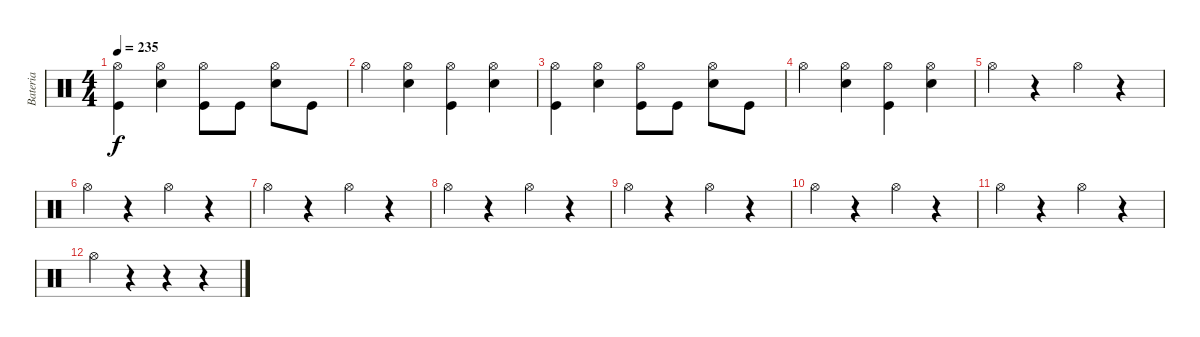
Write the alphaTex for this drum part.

\track ("Bateria" "Bateria") {instrument percussion}
\staff {score}
\articulation defaults
\ts (4 4)
\tempo 235
\clef neutral
\ks c
("Hi-Hat (open)" "Kick (hit)").4{dy f} ("Hi-Hat (open)" "Electric Snare (hit)").4 ("Hi-Hat (open)" "Kick (hit)").8 "Kick (hit)".8 ("Hi-Hat (open)" "Electric Snare (hit)").8 "Kick (hit)".8 |
"Hi-Hat (open)".4 ("Hi-Hat (open)" "Electric Snare (hit)").4 ("Hi-Hat (open)" "Kick (hit)").4 ("Hi-Hat (open)" "Electric Snare (hit)").4 |
("Hi-Hat (open)" "Kick (hit)").4 ("Hi-Hat (open)" "Electric Snare (hit)").4 ("Hi-Hat (open)" "Kick (hit)").8 "Kick (hit)".8 ("Hi-Hat (open)" "Electric Snare (hit)").8 "Kick (hit)".8 |
"Hi-Hat (open)".4 ("Hi-Hat (open)" "Electric Snare (hit)").4 ("Hi-Hat (open)" "Kick (hit)").4 ("Hi-Hat (open)" "Electric Snare (hit)").4 |
"Hi-Hat (open)".4 r.4 "Hi-Hat (open)".4 r.4 |
"Hi-Hat (open)".4 r.4 "Hi-Hat (open)".4 r.4 |
"Hi-Hat (open)".4 r.4 "Hi-Hat (open)".4 r.4 |
"Hi-Hat (open)".4 r.4 "Hi-Hat (open)".4 r.4 |
"Hi-Hat (open)".4 r.4 "Hi-Hat (open)".4 r.4 |
"Hi-Hat (open)".4 r.4 "Hi-Hat (open)".4 r.4 |
"Hi-Hat (open)".4 r.4 "Hi-Hat (open)".4 r.4 |
"Hi-Hat (open)".4 r.4 r.4 r.4
